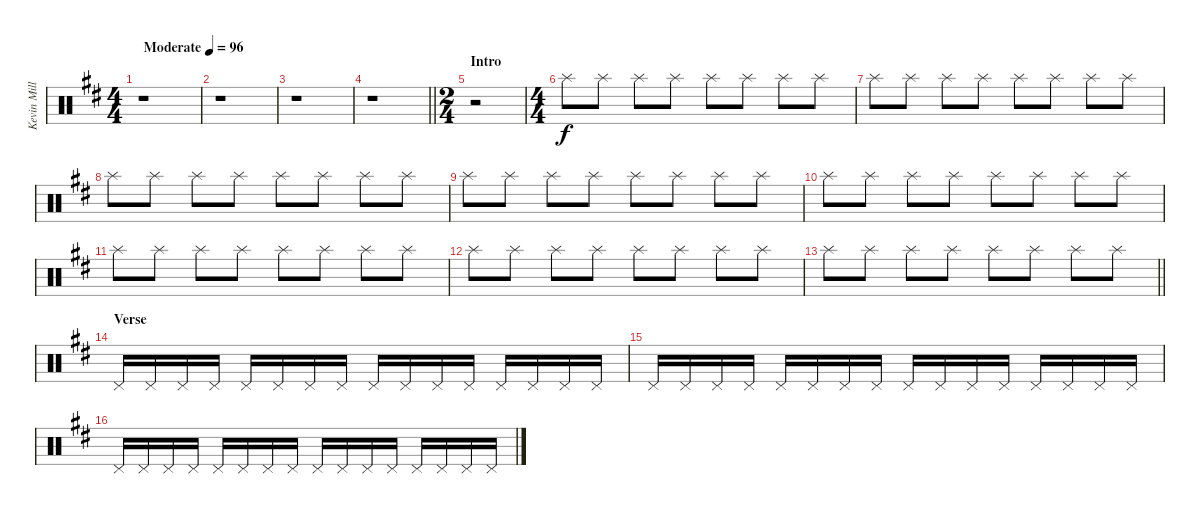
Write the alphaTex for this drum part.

\track ("Kevin Miller (Drums)" "Kevin Mill") {instrument percussion}
\staff {score}
\articulation defaults
\ts (4 4)
\tempo (96 "Moderate")
\clef neutral
\ks d
r.1{dy f} |
r.1 |
r.1 |
\barLineRight lightlight
r.1 |
\ts (2 4)
\section ("" "Intro")
r.2 |
\ts (4 4)
"Splash (hit)".8 "Splash (hit)".8 "Splash (hit)".8 "Splash (hit)".8 "Splash (hit)".8 "Splash (hit)".8 "Splash (hit)".8 "Splash (hit)".8 |
"Splash (hit)".8 "Splash (hit)".8 "Splash (hit)".8 "Splash (hit)".8 "Splash (hit)".8 "Splash (hit)".8 "Splash (hit)".8 "Splash (hit)".8 |
"Splash (hit)".8 "Splash (hit)".8 "Splash (hit)".8 "Splash (hit)".8 "Splash (hit)".8 "Splash (hit)".8 "Splash (hit)".8 "Splash (hit)".8 |
"Splash (hit)".8 "Splash (hit)".8 "Splash (hit)".8 "Splash (hit)".8 "Splash (hit)".8 "Splash (hit)".8 "Splash (hit)".8 "Splash (hit)".8 |
"Splash (hit)".8 "Splash (hit)".8 "Splash (hit)".8 "Splash (hit)".8 "Splash (hit)".8 "Splash (hit)".8 "Splash (hit)".8 "Splash (hit)".8 |
"Splash (hit)".8 "Splash (hit)".8 "Splash (hit)".8 "Splash (hit)".8 "Splash (hit)".8 "Splash (hit)".8 "Splash (hit)".8 "Splash (hit)".8 |
"Splash (hit)".8 "Splash (hit)".8 "Splash (hit)".8 "Splash (hit)".8 "Splash (hit)".8 "Splash (hit)".8 "Splash (hit)".8 "Splash (hit)".8 |
\barLineRight lightlight "Splash (hit)".8 "Splash (hit)".8 "Splash (hit)".8 "Splash (hit)".8 "Splash (hit)".8 "Splash (hit)".8 "Splash (hit)".8 "Splash (hit)".8
|
\section ("" "Verse")
"Pedal Hi-Hat (hit)".16 "Pedal Hi-Hat (hit)".16 "Pedal Hi-Hat (hit)".16 "Pedal Hi-Hat (hit)".16 "Pedal Hi-Hat (hit)".16 "Pedal Hi-Hat (hit)".16 "Pedal Hi-Hat (hit)".16 "Pedal Hi-Hat (hit)".16 "Pedal Hi-Hat (hit)".16 "Pedal Hi-Hat (hit)".16 "Pedal Hi-Hat (hit)".16 "Pedal Hi-Hat (hit)".16 "Pedal Hi-Hat (hit)".16 "Pedal Hi-Hat (hit)".16 "Pedal Hi-Hat (hit)".16 "Pedal Hi-Hat (hit)".16 |
"Pedal Hi-Hat (hit)".16 "Pedal Hi-Hat (hit)".16 "Pedal Hi-Hat (hit)".16 "Pedal Hi-Hat (hit)".16 "Pedal Hi-Hat (hit)".16 "Pedal Hi-Hat (hit)".16 "Pedal Hi-Hat (hit)".16 "Pedal Hi-Hat (hit)".16 "Pedal Hi-Hat (hit)".16 "Pedal Hi-Hat (hit)".16 "Pedal Hi-Hat (hit)".16 "Pedal Hi-Hat (hit)".16 "Pedal Hi-Hat (hit)".16 "Pedal Hi-Hat (hit)".16 "Pedal Hi-Hat (hit)".16 "Pedal Hi-Hat (hit)".16 |
"Pedal Hi-Hat (hit)".16 "Pedal Hi-Hat (hit)".16 "Pedal Hi-Hat (hit)".16 "Pedal Hi-Hat (hit)".16 "Pedal Hi-Hat (hit)".16 "Pedal Hi-Hat (hit)".16 "Pedal Hi-Hat (hit)".16 "Pedal Hi-Hat (hit)".16 "Pedal Hi-Hat (hit)".16 "Pedal Hi-Hat (hit)".16 "Pedal Hi-Hat (hit)".16 "Pedal Hi-Hat (hit)".16 "Pedal Hi-Hat (hit)".16 "Pedal Hi-Hat (hit)".16 "Pedal Hi-Hat (hit)".16 "Pedal Hi-Hat (hit)".16
